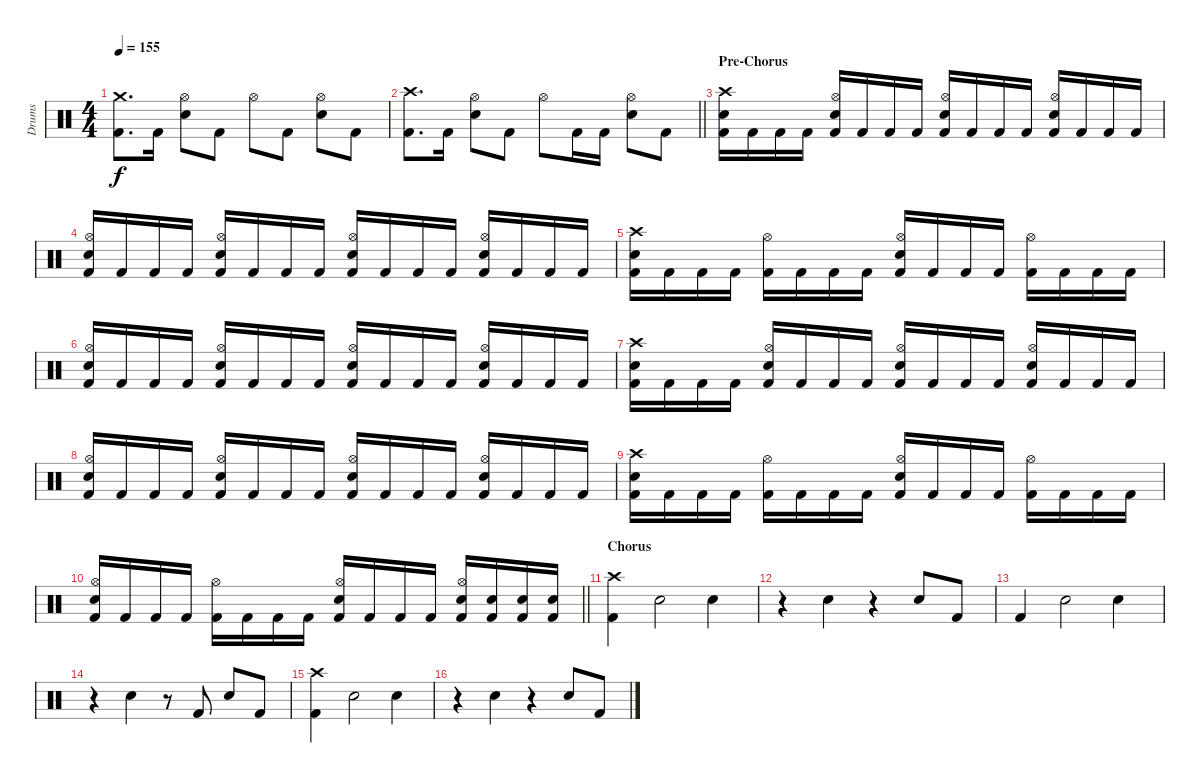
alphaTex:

\track ("Drums" "Drums") {instrument percussion}
\staff {score}
\articulation defaults
\ts (4 4)
\tempo 155
\clef neutral
\ks c
("Crash medium (hit)" "Kick (hit) 2").8{d dy f} "Kick (hit) 2".16 ("Hi-Hat (open)" "Snare (hit) 2").8 "Kick (hit) 2".8 "Hi-Hat (open)".8 "Kick (hit) 2".8 ("Hi-Hat (open)" "Snare (hit) 2").8 "Kick (hit) 2".8 |
\barLineRight lightlight
("Crash high (hit)" "Kick (hit) 2").8{d} "Kick (hit) 2".16 ("Hi-Hat (open)" "Snare (hit) 2").8 "Kick (hit) 2".8 "Hi-Hat (open)".8 "Kick (hit) 2".16 "Kick (hit) 2".16 ("Hi-Hat (open)" "Snare (hit) 2").8 "Kick (hit) 2".8 |
\section ("" "Pre-Chorus")
("Crash high (hit)" "Snare (hit) 2" "Kick (hit) 2").16 "Kick (hit) 2".16 "Kick (hit) 2".16 "Kick (hit) 2".16 ("Hi-Hat (open)" "Snare (hit) 2" "Kick (hit) 2").16 "Kick (hit) 2".16 "Kick (hit) 2".16 "Kick (hit) 2".16 ("Hi-Hat (open)" "Snare (hit) 2" "Kick (hit) 2").16 "Kick (hit) 2".16 "Kick (hit) 2".16 "Kick (hit) 2".16 ("Hi-Hat (open)" "Snare (hit) 2" "Kick (hit) 2").16 "Kick (hit) 2".16 "Kick (hit) 2".16 "Kick (hit) 2".16 |
("Hi-Hat (open)" "Snare (hit) 2" "Kick (hit) 2").16 "Kick (hit) 2".16 "Kick (hit) 2".16 "Kick (hit) 2".16 ("Hi-Hat (open)" "Snare (hit) 2" "Kick (hit) 2").16 "Kick (hit) 2".16 "Kick (hit) 2".16 "Kick (hit) 2".16 ("Hi-Hat (open)" "Snare (hit) 2" "Kick (hit) 2").16 "Kick (hit) 2".16 "Kick (hit) 2".16 "Kick (hit) 2".16 ("Hi-Hat (open)" "Snare (hit) 2" "Kick (hit) 2").16 "Kick (hit) 2".16 "Kick (hit) 2".16 "Kick (hit) 2".16 |
("Crash high (hit)" "Snare (hit) 2" "Kick (hit) 2").16 "Kick (hit) 2".16 "Kick (hit) 2".16 "Kick (hit) 2".16 ("Hi-Hat (open)" "Kick (hit) 2").16 "Kick (hit) 2".16 "Kick (hit) 2".16 "Kick (hit) 2".16 ("Hi-Hat (open)" "Snare (hit) 2" "Kick (hit) 2").16 "Kick (hit) 2".16 "Kick (hit) 2".16 "Kick (hit) 2".16 ("Hi-Hat (open)" "Kick (hit) 2").16 "Kick (hit) 2".16 "Kick (hit) 2".16 "Kick (hit) 2".16 |
("Hi-Hat (open)" "Snare (hit) 2" "Kick (hit) 2").16 "Kick (hit) 2".16 "Kick (hit) 2".16 "Kick (hit) 2".16 ("Hi-Hat (open)" "Snare (hit) 2" "Kick (hit) 2").16 "Kick (hit) 2".16 "Kick (hit) 2".16 "Kick (hit) 2".16 ("Hi-Hat (open)" "Snare (hit) 2" "Kick (hit) 2").16 "Kick (hit) 2".16 "Kick (hit) 2".16 "Kick (hit) 2".16 ("Hi-Hat (open)" "Snare (hit) 2" "Kick (hit) 2").16 "Kick (hit) 2".16 "Kick (hit) 2".16 "Kick (hit) 2".16 |
("Crash high (hit)" "Snare (hit) 2" "Kick (hit) 2").16 "Kick (hit) 2".16 "Kick (hit) 2".16 "Kick (hit) 2".16 ("Hi-Hat (open)" "Snare (hit) 2" "Kick (hit) 2").16 "Kick (hit) 2".16 "Kick (hit) 2".16 "Kick (hit) 2".16 ("Hi-Hat (open)" "Snare (hit) 2" "Kick (hit) 2").16 "Kick (hit) 2".16 "Kick (hit) 2".16 "Kick (hit) 2".16 ("Hi-Hat (open)" "Snare (hit) 2" "Kick (hit) 2").16 "Kick (hit) 2".16 "Kick (hit) 2".16 "Kick (hit) 2".16 |
("Hi-Hat (open)" "Snare (hit) 2" "Kick (hit) 2").16 "Kick (hit) 2".16 "Kick (hit) 2".16 "Kick (hit) 2".16 ("Hi-Hat (open)" "Snare (hit) 2" "Kick (hit) 2").16 "Kick (hit) 2".16 "Kick (hit) 2".16 "Kick (hit) 2".16 ("Hi-Hat (open)" "Snare (hit) 2" "Kick (hit) 2").16 "Kick (hit) 2".16 "Kick (hit) 2".16 "Kick (hit) 2".16 ("Hi-Hat (open)" "Snare (hit) 2" "Kick (hit) 2").16 "Kick (hit) 2".16 "Kick (hit) 2".16 "Kick (hit) 2".16 |
("Crash high (hit)" "Snare (hit) 2" "Kick (hit) 2").16 "Kick (hit) 2".16 "Kick (hit) 2".16 "Kick (hit) 2".16 ("Hi-Hat (open)" "Kick (hit) 2").16 "Kick (hit) 2".16 "Kick (hit) 2".16 "Kick (hit) 2".16 ("Hi-Hat (open)" "Snare (hit) 2" "Kick (hit) 2").16 "Kick (hit) 2".16 "Kick (hit) 2".16 "Kick (hit) 2".16 ("Hi-Hat (open)" "Kick (hit) 2").16 "Kick (hit) 2".16 "Kick (hit) 2".16 "Kick (hit) 2".16 |
\barLineRight lightlight
("Hi-Hat (open)" "Snare (hit) 2" "Kick (hit) 2").16 "Kick (hit) 2".16 "Kick (hit) 2".16 "Kick (hit) 2".16 ("Hi-Hat (open)" "Kick (hit) 2").16 "Kick (hit) 2".16 "Kick (hit) 2".16 "Kick (hit) 2".16 ("Hi-Hat (open)" "Snare (hit) 2" "Kick (hit) 2").16 "Kick (hit) 2".16 "Kick (hit) 2".16 "Kick (hit) 2".16 ("Hi-Hat (open)" "Snare (hit) 2" "Kick (hit) 2").16 ("Snare (hit) 2" "Kick (hit) 2").16 ("Snare (hit) 2" "Kick (hit) 2").16 ("Snare (hit) 2" "Kick (hit) 2").16 |
\section ("" "Chorus")
("Crash high (hit)" "Kick (hit) 2").4 "Snare (hit) 2".2 "Snare (hit) 2".4 |
r.4 "Snare (hit) 2".4 r.4 "Snare (hit) 2".8 "Kick (hit) 2".8 |
"Kick (hit) 2".4 "Snare (hit) 2".2 "Snare (hit) 2".4 |
r.4 "Snare (hit) 2".4 r.8 "Kick (hit) 2".8 "Snare (hit) 2".8 "Kick (hit) 2".8 |
("Crash high (hit)" "Kick (hit) 2").4 "Snare (hit) 2".2 "Snare (hit) 2".4 |
r.4 "Snare (hit) 2".4 r.4 "Snare (hit) 2".8 "Kick (hit) 2".8
